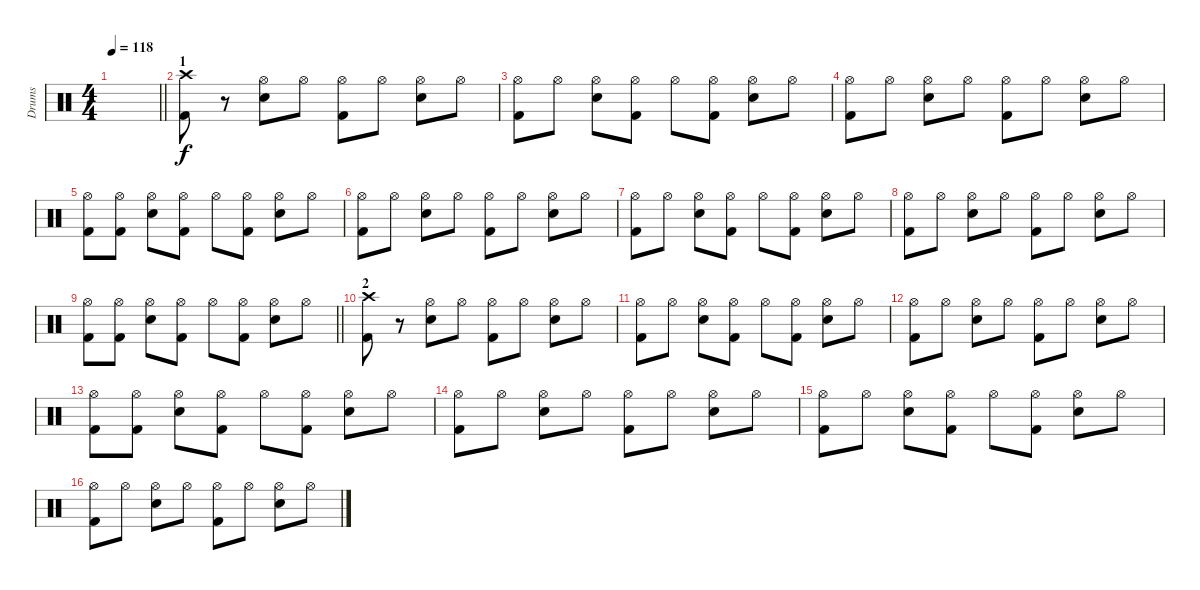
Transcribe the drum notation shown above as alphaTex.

\track ("Drums" "Drums") {instrument percussion}
\staff {score}
\articulation defaults
\ts (4 4)
\tempo 118
\clef neutral
\barLineRight lightlight
\ks c
|
\section ("" "1")
("Crash high (hit)" "Kick (hit) 2").8 r.8 ("Hi-Hat (open)" "Electric Snare (hit)").8 "Hi-Hat (open)".8 ("Kick (hit) 2" "Hi-Hat (open)").8 "Hi-Hat (open)".8 ("Hi-Hat (open)" "Electric Snare (hit)").8 "Hi-Hat (open)".8 |
("Kick (hit) 2" "Hi-Hat (open)").8 "Hi-Hat (open)".8 ("Hi-Hat (open)" "Electric Snare (hit)").8 ("Kick (hit) 2" "Hi-Hat (open)").8 "Hi-Hat (open)".8 ("Kick (hit) 2" "Hi-Hat (open)").8 ("Hi-Hat (open)" "Electric Snare (hit)").8 "Hi-Hat (open)".8 |
("Kick (hit) 2" "Hi-Hat (open)").8 "Hi-Hat (open)".8 ("Hi-Hat (open)" "Electric Snare (hit)").8 "Hi-Hat (open)".8 ("Kick (hit) 2" "Hi-Hat (open)").8 "Hi-Hat (open)".8 ("Hi-Hat (open)" "Electric Snare (hit)").8 "Hi-Hat (open)".8 |
("Kick (hit) 2" "Hi-Hat (open)").8 ("Kick (hit) 2" "Hi-Hat (open)").8 ("Hi-Hat (open)" "Electric Snare (hit)").8 ("Kick (hit) 2" "Hi-Hat (open)").8 "Hi-Hat (open)".8 ("Kick (hit) 2" "Hi-Hat (open)").8 ("Hi-Hat (open)" "Electric Snare (hit)").8 "Hi-Hat (open)".8 |
("Kick (hit) 2" "Hi-Hat (open)").8 "Hi-Hat (open)".8 ("Hi-Hat (open)" "Electric Snare (hit)").8 "Hi-Hat (open)".8 ("Kick (hit) 2" "Hi-Hat (open)").8 "Hi-Hat (open)".8 ("Hi-Hat (open)" "Electric Snare (hit)").8 "Hi-Hat (open)".8 |
("Kick (hit) 2" "Hi-Hat (open)").8 "Hi-Hat (open)".8 ("Hi-Hat (open)" "Electric Snare (hit)").8 ("Kick (hit) 2" "Hi-Hat (open)").8 "Hi-Hat (open)".8 ("Kick (hit) 2" "Hi-Hat (open)").8 ("Hi-Hat (open)" "Electric Snare (hit)").8 "Hi-Hat (open)".8 |
("Kick (hit) 2" "Hi-Hat (open)").8 "Hi-Hat (open)".8 ("Hi-Hat (open)" "Electric Snare (hit)").8 "Hi-Hat (open)".8 ("Kick (hit) 2" "Hi-Hat (open)").8 "Hi-Hat (open)".8 ("Hi-Hat (open)" "Electric Snare (hit)").8 "Hi-Hat (open)".8 |
\barLineRight lightlight
("Kick (hit) 2" "Hi-Hat (open)").8 ("Kick (hit) 2" "Hi-Hat (open)").8 ("Hi-Hat (open)" "Electric Snare (hit)").8 ("Kick (hit) 2" "Hi-Hat (open)").8 "Hi-Hat (open)".8 ("Kick (hit) 2" "Hi-Hat (open)").8 ("Hi-Hat (open)" "Electric Snare (hit)").8 "Hi-Hat (open)".8 |
\section ("" "2")
("Crash high (hit)" "Kick (hit) 2").8 r.8 ("Hi-Hat (open)" "Electric Snare (hit)").8 "Hi-Hat (open)".8 ("Kick (hit) 2" "Hi-Hat (open)").8 "Hi-Hat (open)".8 ("Hi-Hat (open)" "Electric Snare (hit)").8 "Hi-Hat (open)".8 |
("Kick (hit) 2" "Hi-Hat (open)").8 "Hi-Hat (open)".8 ("Hi-Hat (open)" "Electric Snare (hit)").8 ("Kick (hit) 2" "Hi-Hat (open)").8 "Hi-Hat (open)".8 ("Kick (hit) 2" "Hi-Hat (open)").8 ("Hi-Hat (open)" "Electric Snare (hit)").8 "Hi-Hat (open)".8 |
("Kick (hit) 2" "Hi-Hat (open)").8 "Hi-Hat (open)".8 ("Hi-Hat (open)" "Electric Snare (hit)").8 "Hi-Hat (open)".8 ("Kick (hit) 2" "Hi-Hat (open)").8 "Hi-Hat (open)".8 ("Hi-Hat (open)" "Electric Snare (hit)").8 "Hi-Hat (open)".8 |
("Kick (hit) 2" "Hi-Hat (open)").8 ("Kick (hit) 2" "Hi-Hat (open)").8 ("Hi-Hat (open)" "Electric Snare (hit)").8 ("Kick (hit) 2" "Hi-Hat (open)").8 "Hi-Hat (open)".8 ("Kick (hit) 2" "Hi-Hat (open)").8 ("Hi-Hat (open)" "Electric Snare (hit)").8 "Hi-Hat (open)".8 |
("Kick (hit) 2" "Hi-Hat (open)").8 "Hi-Hat (open)".8 ("Hi-Hat (open)" "Electric Snare (hit)").8 "Hi-Hat (open)".8 ("Kick (hit) 2" "Hi-Hat (open)").8 "Hi-Hat (open)".8 ("Hi-Hat (open)" "Electric Snare (hit)").8 "Hi-Hat (open)".8 |
("Kick (hit) 2" "Hi-Hat (open)").8 "Hi-Hat (open)".8 ("Hi-Hat (open)" "Electric Snare (hit)").8 ("Kick (hit) 2" "Hi-Hat (open)").8 "Hi-Hat (open)".8 ("Kick (hit) 2" "Hi-Hat (open)").8 ("Hi-Hat (open)" "Electric Snare (hit)").8 "Hi-Hat (open)".8 |
("Kick (hit) 2" "Hi-Hat (open)").8 "Hi-Hat (open)".8 ("Hi-Hat (open)" "Electric Snare (hit)").8 "Hi-Hat (open)".8 ("Kick (hit) 2" "Hi-Hat (open)").8 "Hi-Hat (open)".8 ("Hi-Hat (open)" "Electric Snare (hit)").8 "Hi-Hat (open)".8
